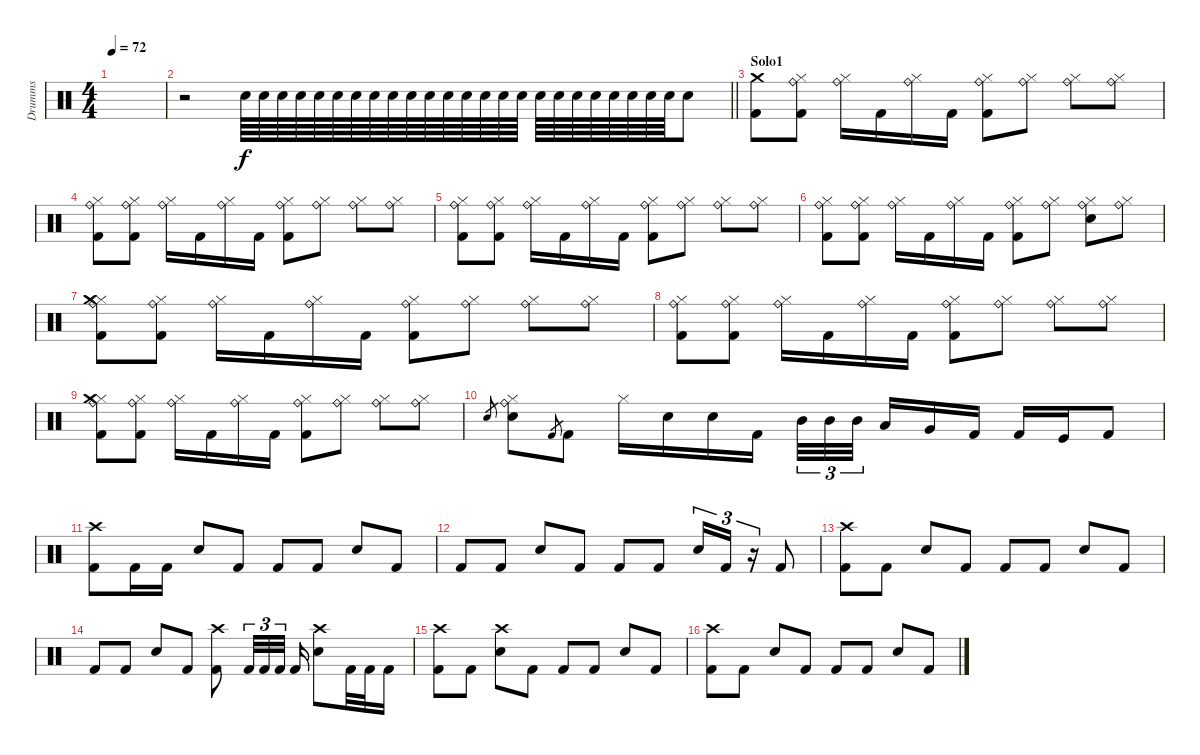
\track ("Drumms" "Drumms") {instrument percussion}
\staff {score}
\articulation defaults
\ts (4 4)
\tempo 72
\clef neutral
\ks c
|
\barLineRight lightlight
r.2 "Snare (hit) 2".64 "Snare (hit) 2".64 "Snare (hit) 2".64 "Snare (hit) 2".64 "Snare (hit) 2".64 "Snare (hit) 2".64 "Snare (hit) 2".64 "Snare (hit) 2".64 "Snare (hit) 2".64 "Snare (hit) 2".64 "Snare (hit) 2".64 "Snare (hit) 2".64 "Snare (hit) 2".64 "Snare (hit) 2".64 "Snare (hit) 2".64 "Snare (hit) 2".64 "Snare (hit) 2".64 "Snare (hit) 2".64 "Snare (hit) 2".64 "Snare (hit) 2".64 "Snare (hit) 2".64 "Snare (hit) 2".64 "Snare (hit) 2".64 "Snare (hit) 2".64 "Electric Snare (hit)".8{dy f} |
\section ("" "Solo1")
("Crash medium (hit)" "Kick (hit) 2").8 ("Hi-Hat (closed)" "Ride (bell)" "Kick (hit) 2").8 ("Hi-Hat (closed)" "Ride (bell)").16 "Kick (hit) 2".16 ("Hi-Hat (closed)" "Ride (bell)").16 "Kick (hit) 2".16 ("Hi-Hat (closed)" "Ride (bell)" "Kick (hit) 2").8 ("Hi-Hat (closed)" "Ride (bell)").8 ("Hi-Hat (closed)" "Ride (bell)").8 ("Hi-Hat (closed)" "Ride (bell)").8 |
("Hi-Hat (closed)" "Ride (bell)" "Kick (hit) 2").8 ("Hi-Hat (closed)" "Ride (bell)" "Kick (hit) 2").8 ("Hi-Hat (closed)" "Ride (bell)").16 "Kick (hit) 2".16 ("Hi-Hat (closed)" "Ride (bell)").16 "Kick (hit) 2".16 ("Hi-Hat (closed)" "Ride (bell)" "Kick (hit) 2").8 ("Hi-Hat (closed)" "Ride (bell)").8 ("Hi-Hat (closed)" "Ride (bell)").8 ("Hi-Hat (closed)" "Ride (bell)").8 |
("Hi-Hat (closed)" "Ride (bell)" "Kick (hit) 2").8 ("Hi-Hat (closed)" "Ride (bell)" "Kick (hit) 2").8 ("Hi-Hat (closed)" "Ride (bell)").16 "Kick (hit) 2".16 ("Hi-Hat (closed)" "Ride (bell)").16 "Kick (hit) 2".16 ("Hi-Hat (closed)" "Ride (bell)" "Kick (hit) 2").8 ("Hi-Hat (closed)" "Ride (bell)").8 ("Hi-Hat (closed)" "Ride (bell)").8 ("Hi-Hat (closed)" "Ride (bell)").8 |
("Hi-Hat (closed)" "Ride (bell)" "Kick (hit) 2").8 ("Hi-Hat (closed)" "Ride (bell)" "Kick (hit) 2").8 ("Hi-Hat (closed)" "Ride (bell)").16 "Kick (hit) 2".16 ("Hi-Hat (closed)" "Ride (bell)").16 "Kick (hit) 2".16 ("Hi-Hat (closed)" "Ride (bell)" "Kick (hit) 2").8 ("Hi-Hat (closed)" "Ride (bell)").8 ("Hi-Hat (closed)" "Ride (bell)" "Electric Snare (hit)").8 ("Hi-Hat (closed)" "Ride (bell)").8 |
("Hi-Hat (closed)" "Ride (bell)" "Crash medium (hit)" "Kick (hit) 2").8 ("Hi-Hat (closed)" "Ride (bell)" "Kick (hit) 2").8 ("Hi-Hat (closed)" "Ride (bell)").16 "Kick (hit) 2".16 ("Hi-Hat (closed)" "Ride (bell)").16 "Kick (hit) 2".16 ("Hi-Hat (closed)" "Ride (bell)" "Kick (hit) 2").8 ("Hi-Hat (closed)" "Ride (bell)").8 ("Hi-Hat (closed)" "Ride (bell)").8 ("Hi-Hat (closed)" "Ride (bell)").8 |
("Hi-Hat (closed)" "Ride (bell)" "Kick (hit) 2").8 ("Hi-Hat (closed)" "Ride (bell)" "Kick (hit) 2").8 ("Hi-Hat (closed)" "Ride (bell)").16 "Kick (hit) 2".16 ("Hi-Hat (closed)" "Ride (bell)").16 "Kick (hit) 2".16 ("Hi-Hat (closed)" "Ride (bell)" "Kick (hit) 2").8 ("Hi-Hat (closed)" "Ride (bell)").8 ("Hi-Hat (closed)" "Ride (bell)").8 ("Hi-Hat (closed)" "Ride (bell)").8 |
("Hi-Hat (closed)" "Ride (bell)" "Crash medium (hit)" "Kick (hit) 2").8 ("Hi-Hat (closed)" "Ride (bell)" "Kick (hit) 2").8 ("Hi-Hat (closed)" "Ride (bell)").16 "Kick (hit) 2".16 ("Hi-Hat (closed)" "Ride (bell)").16 "Kick (hit) 2".16 ("Hi-Hat (closed)" "Ride (bell)" "Kick (hit) 2").8 ("Hi-Hat (closed)" "Ride (bell)").8 ("Hi-Hat (closed)" "Ride (bell)").8 ("Hi-Hat (closed)" "Ride (bell)").8 |
"Electric Snare (hit)".8{gr} ("Hi-Hat (closed)" "Ride (bell)" "Electric Snare (hit)").8 "Kick (hit) 2".8{gr} "Kick (hit) 2".8 "Hi-Hat (closed)".16 "Electric Snare (hit)".16 "Electric Snare (hit)".16 "Kick (hit) 2".16 "Mid Tom (hit)".32{tu (3 2)} "Mid Tom (hit)".32{tu (3 2)} "Mid Tom (hit)".32{tu (3 2)} "Low Tom (hit)".16 "Very Low Tom (hit)".16 "Kick (hit) 2".16 "Kick (hit) 2".16{balance 0} "Kick (hit)".16{balance 16} "Kick (hit) 2".8{balance 8} |
\section ("" "")
("Crash high (hit)" "Kick (hit) 2").8{volume 13 balance 8} "Kick (hit) 2".16 "Kick (hit) 2".16 "Electric Snare (hit)".8 "Kick (hit) 2".8 "Kick (hit) 2".8 "Kick (hit) 2".8 "Electric Snare (hit)".8 "Kick (hit) 2".8 |
"Kick (hit) 2".8 "Kick (hit) 2".8 "Electric Snare (hit)".8 "Kick (hit) 2".8 "Kick (hit) 2".8 "Kick (hit) 2".8 "Electric Snare (hit)".16{tu (3 2)} "Kick (hit) 2".16{tu (3 2)} r.16{tu (3 2)} "Kick (hit) 2".8 |
("Crash high (hit)" "Kick (hit) 2").8 "Kick (hit) 2".8 "Electric Snare (hit)".8 "Kick (hit) 2".8 "Kick (hit) 2".8 "Kick (hit) 2".8 "Electric Snare (hit)".8 "Kick (hit) 2".8 |
"Kick (hit) 2".8 "Kick (hit) 2".8 "Electric Snare (hit)".8 "Kick (hit) 2".8 ("Crash high (hit)" "Kick (hit) 2").8 "Kick (hit) 2".32{tu (3 2)} "Kick (hit) 2".32{tu (3 2)} "Kick (hit) 2".32{tu (3 2)} "Kick (hit) 2".16 ("Crash high (hit)" "Electric Snare (hit)").8 "Kick (hit) 2".32 "Kick (hit) 2".32 "Kick (hit) 2".16 |
("Crash high (hit)" "Kick (hit) 2").8 "Kick (hit) 2".8 ("Crash high (hit)" "Electric Snare (hit)").8 "Kick (hit) 2".8 "Kick (hit) 2".8 "Kick (hit) 2".8 "Electric Snare (hit)".8 "Kick (hit) 2".8 |
("Crash high (hit)" "Kick (hit) 2").8 "Kick (hit) 2".8 "Electric Snare (hit)".8 "Kick (hit) 2".8 "Kick (hit) 2".8 "Kick (hit) 2".8 "Electric Snare (hit)".8 "Kick (hit) 2".8
